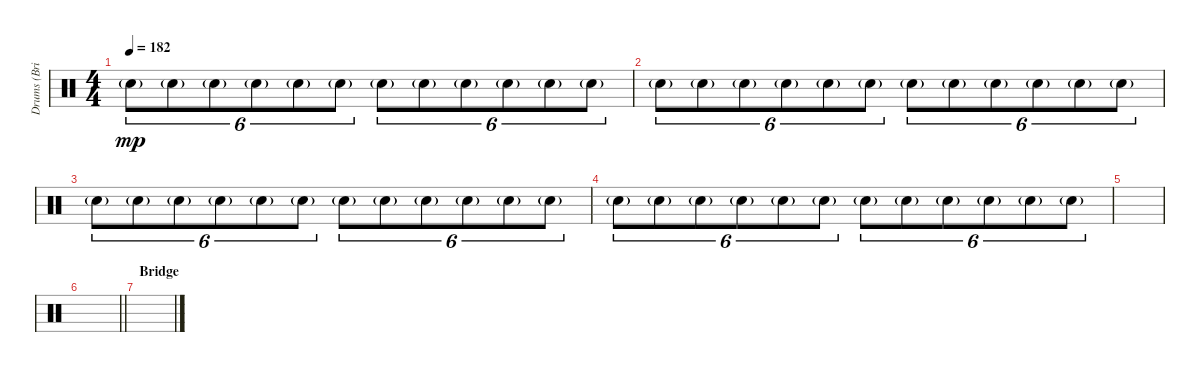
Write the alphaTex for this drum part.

\track ("Drums (Bridge)" "Drums (Bri") {instrument percussion}
\staff {score}
\articulation defaults
\ts (4 4)
\tempo 182
\clef neutral
\ks c "Electric Snare (hit)"{g}.8{tu (6 4) dy mp} "Electric Snare (hit)"{g}.8{tu (6 4)} "Electric Snare (hit)"{g}.8{tu (6 4)} "Electric Snare (hit)"{g}.8{tu (6 4)} "Electric Snare (hit)"{g}.8{tu (6 4)} "Electric Snare (hit)"{g}.8{tu (6 4)} "Electric Snare (hit)"{g}.8{tu (6 4)} "Electric Snare (hit)"{g}.8{tu (6 4)} "Electric Snare (hit)"{g}.8{tu (6 4)} "Electric Snare (hit)"{g}.8{tu (6 4)} "Electric Snare (hit)"{g}.8{tu (6 4)} "Electric Snare (hit)"{g}.8{tu (6 4)}
|
"Electric Snare (hit)"{g}.8{tu (6 4)} "Electric Snare (hit)"{g}.8{tu (6 4)} "Electric Snare (hit)"{g}.8{tu (6 4)} "Electric Snare (hit)"{g}.8{tu (6 4)} "Electric Snare (hit)"{g}.8{tu (6 4)} "Electric Snare (hit)"{g}.8{tu (6 4)} "Electric Snare (hit)"{g}.8{tu (6 4)} "Electric Snare (hit)"{g}.8{tu (6 4)} "Electric Snare (hit)"{g}.8{tu (6 4)} "Electric Snare (hit)"{g}.8{tu (6 4)} "Electric Snare (hit)"{g}.8{tu (6 4)} "Electric Snare (hit)"{g}.8{tu (6 4)} |
"Electric Snare (hit)"{g}.8{tu (6 4)} "Electric Snare (hit)"{g}.8{tu (6 4)} "Electric Snare (hit)"{g}.8{tu (6 4)} "Electric Snare (hit)"{g}.8{tu (6 4)} "Electric Snare (hit)"{g}.8{tu (6 4)} "Electric Snare (hit)"{g}.8{tu (6 4)} "Electric Snare (hit)"{g}.8{tu (6 4)} "Electric Snare (hit)"{g}.8{tu (6 4)} "Electric Snare (hit)"{g}.8{tu (6 4)} "Electric Snare (hit)"{g}.8{tu (6 4)} "Electric Snare (hit)"{g}.8{tu (6 4)} "Electric Snare (hit)"{g}.8{tu (6 4)} |
"Electric Snare (hit)"{g}.8{tu (6 4)} "Electric Snare (hit)"{g}.8{tu (6 4)} "Electric Snare (hit)"{g}.8{tu (6 4)} "Electric Snare (hit)"{g}.8{tu (6 4)} "Electric Snare (hit)"{g}.8{tu (6 4)} "Electric Snare (hit)"{g}.8{tu (6 4)} "Electric Snare (hit)"{g}.8{tu (6 4)} "Electric Snare (hit)"{g}.8{tu (6 4)} "Electric Snare (hit)"{g}.8{tu (6 4)} "Electric Snare (hit)"{g}.8{tu (6 4)} "Electric Snare (hit)"{g}.8{tu (6 4)} "Electric Snare (hit)"{g}.8{tu (6 4)} |
|
\barLineRight lightlight
|
\section ("" "Bridge")
